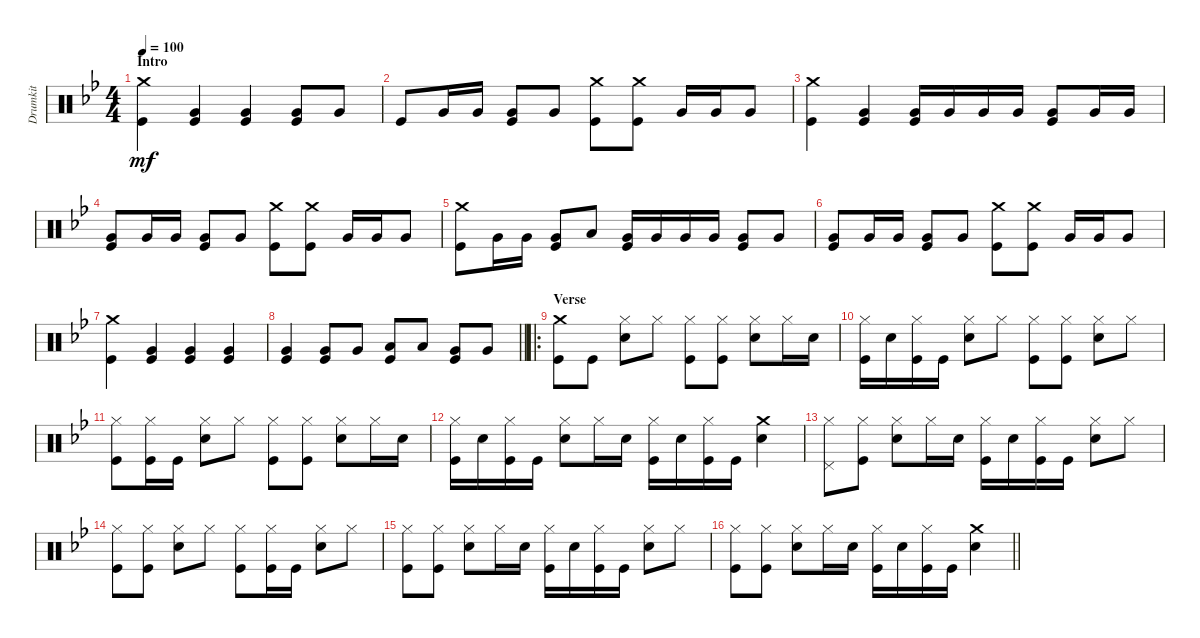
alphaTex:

\track ("Drumkit" "Drumkit") {instrument percussion}
\staff {score}
\articulation defaults
\ts (4 4)
\section ("" "Intro")
\tempo 100
\clef neutral
\ks bb
("Kick (hit)" "Crash medium (hit)").4{dy mf} ("Kick (hit)" "Very Low Tom (hit)").4 ("Very Low Tom (hit)" "Kick (hit)").4 ("Kick (hit)" "Very Low Tom (hit)").8 "Very Low Tom (hit)".8 |
"Kick (hit)".8 "Very Low Tom (hit)".16 "Very Low Tom (hit)".16 ("Kick (hit)" "Very Low Tom (hit)").8 "Very Low Tom (hit)".8 ("Crash medium (hit)" "Kick (hit)").8 ("Kick (hit)" "Crash medium (hit)").8 "Very Low Tom (hit)".16 "Very Low Tom (hit)".16 "Very Low Tom (hit)".8 |
("Kick (hit)" "Crash medium (hit)").4 ("Kick (hit)" "Very Low Tom (hit)").4 ("Very Low Tom (hit)" "Kick (hit)").16 "Very Low Tom (hit)".16 "Very Low Tom (hit)".16 "Very Low Tom (hit)".16 ("Very Low Tom (hit)" "Kick (hit)").8 "Very Low Tom (hit)".16 "Very Low Tom (hit)".16 |
("Very Low Tom (hit)" "Kick (hit)").8 "Very Low Tom (hit)".16 "Very Low Tom (hit)".16 ("Kick (hit)" "Very Low Tom (hit)").8 "Very Low Tom (hit)".8 ("Kick (hit)" "Crash medium (hit)").8 ("Crash medium (hit)" "Kick (hit)").8 "Very Low Tom (hit)".16 "Very Low Tom (hit)".16 "Very Low Tom (hit)".8 |
("Crash medium (hit)" "Kick (hit)").8 "Very Low Tom (hit)".16 "Very Low Tom (hit)".16 ("Kick (hit)" "Very Low Tom (hit)").8 "Low Tom (hit)".8 ("Kick (hit)" "Very Low Tom (hit)").16 "Very Low Tom (hit)".16 "Very Low Tom (hit)".16 "Very Low Tom (hit)".16 ("Very Low Tom (hit)" "Kick (hit)").8 "Very Low Tom (hit)".8 |
("Very Low Tom (hit)" "Kick (hit)").8 "Very Low Tom (hit)".16 "Very Low Tom (hit)".16 ("Kick (hit)" "Very Low Tom (hit)").8 "Very Low Tom (hit)".8 ("Kick (hit)" "Crash medium (hit)").8 ("Crash medium (hit)" "Kick (hit)").8 "Very Low Tom (hit)".16 "Very Low Tom (hit)".16 "Very Low Tom (hit)".8 |
("Kick (hit)" "Crash medium (hit)").4 ("Kick (hit)" "Very Low Tom (hit)").4 ("Very Low Tom (hit)" "Kick (hit)").4 ("Very Low Tom (hit)" "Kick (hit)").4 |
\barLineRight lightlight
("Kick (hit)" "Very Low Tom (hit)").4 ("Very Low Tom (hit)" "Kick (hit)").8 "Very Low Tom (hit)".8 ("Low Floor Tom (hit)" "Kick (hit)").8 "Low Floor Tom (hit)".8 ("Very Low Tom (hit)" "Kick (hit)").8 "Very Low Tom (hit)".8 |
\ro
\section ("" "Verse")
("Crash medium (hit)" "Kick (hit)").8 "Kick (hit)".8 ("Snare (hit) 2" "Hi-Hat (closed)").8 "Hi-Hat (closed)".8 ("Hi-Hat (closed)" "Kick (hit)").8 ("Kick (hit)" "Hi-Hat (closed)").8 ("Snare (hit) 2" "Hi-Hat (closed)").8 "Hi-Hat (closed)".16 "Snare (hit) 2".16 |
("Kick (hit)" "Hi-Hat (closed)").16 "Snare (hit) 2".16 ("Kick (hit)" "Hi-Hat (closed)").16 "Kick (hit)".16 ("Snare (hit) 2" "Hi-Hat (closed)").8 "Hi-Hat (closed)".8 ("Hi-Hat (closed)" "Kick (hit)").8 ("Kick (hit)" "Hi-Hat (closed)").8 ("Snare (hit) 2" "Hi-Hat (closed)").8 "Hi-Hat (closed)".8 |
("Kick (hit)" "Hi-Hat (closed)").8 ("Hi-Hat (closed)" "Kick (hit)").16 "Kick (hit)".16 ("Snare (hit) 2" "Hi-Hat (closed)").8 "Hi-Hat (closed)".8 ("Hi-Hat (closed)" "Kick (hit)").8 ("Kick (hit)" "Hi-Hat (closed)").8 ("Snare (hit) 2" "Hi-Hat (closed)").8 "Hi-Hat (closed)".16 "Snare (hit) 2".16 |
("Kick (hit)" "Hi-Hat (closed)").16 "Snare (hit) 2".16 ("Kick (hit)" "Hi-Hat (closed)").16 "Kick (hit)".16 ("Snare (hit) 2" "Hi-Hat (closed)").8 "Hi-Hat (closed)".16 "Snare (hit) 2".16 ("Kick (hit)" "Hi-Hat (closed)").16 "Snare (hit) 2".16 ("Kick (hit)" "Hi-Hat (closed)").16 "Kick (hit)".16 ("Snare (hit) 2" "Crash medium (hit)").4 |
("Pedal Hi-Hat (hit)" "Hi-Hat (closed)").8 ("Hi-Hat (closed)" "Kick (hit)").8 ("Snare (hit) 2" "Hi-Hat (closed)").8 "Hi-Hat (closed)".16 "Snare (hit) 2".16 ("Kick (hit)" "Hi-Hat (closed)").16 "Snare (hit) 2".16 ("Kick (hit)" "Hi-Hat (closed)").16 "Kick (hit)".16 ("Snare (hit) 2" "Hi-Hat (closed)").8 "Hi-Hat (closed)".8 |
("Kick (hit)" "Hi-Hat (closed)").8 ("Hi-Hat (closed)" "Kick (hit)").8 ("Snare (hit) 2" "Hi-Hat (closed)").8 "Hi-Hat (closed)".8 ("Kick (hit)" "Hi-Hat (closed)").8 ("Hi-Hat (closed)" "Kick (hit)").16 "Kick (hit)".16 ("Snare (hit) 2" "Hi-Hat (closed)").8 "Hi-Hat (closed)".8 |
("Kick (hit)" "Hi-Hat (closed)").8 ("Hi-Hat (closed)" "Kick (hit)").8 ("Snare (hit) 2" "Hi-Hat (closed)").8 "Hi-Hat (closed)".16 "Snare (hit) 2".16 ("Kick (hit)" "Hi-Hat (closed)").16 "Snare (hit) 2".16 ("Kick (hit)" "Hi-Hat (closed)").16 "Kick (hit)".16 ("Snare (hit) 2" "Hi-Hat (closed)").8 "Hi-Hat (closed)".8 |
\barLineRight lightlight
("Kick (hit)" "Hi-Hat (closed)").8 ("Hi-Hat (closed)" "Kick (hit)").8 ("Snare (hit) 2" "Hi-Hat (closed)").8 "Hi-Hat (closed)".16 "Snare (hit) 2".16 ("Kick (hit)" "Hi-Hat (closed)").16 "Snare (hit) 2".16 ("Kick (hit)" "Hi-Hat (closed)").16 "Kick (hit)".16 ("Snare (hit) 2" "Crash medium (hit)").4
